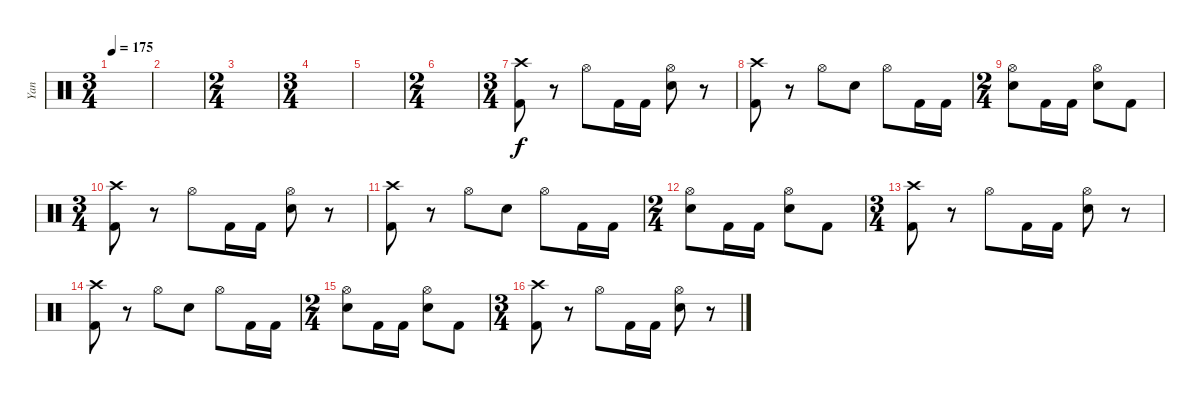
\track ("Yan" "Yan") {instrument percussion}
\staff {score}
\articulation defaults
\ts (3 4)
\tempo 175
\clef neutral
\ks c
|
|
\ts (2 4)
|
\ts (3 4)
|
|
\ts (2 4)
|
\ts (3 4)
("Kick (hit) 2" "Crash high (hit)").8 r.8 "Hi-Hat (open)".8 "Kick (hit) 2".16 "Kick (hit) 2".16 ("Electric Snare (hit)" "Hi-Hat (open)").8 r.8 |
("Kick (hit) 2" "Crash high (hit)").8 r.8 "Hi-Hat (open)".8 "Electric Snare (hit)".8 "Hi-Hat (open)".8 "Kick (hit) 2".16 "Kick (hit) 2".16 |
\ts (2 4)
("Electric Snare (hit)" "Hi-Hat (open)").8 "Kick (hit) 2".16 "Kick (hit) 2".16 ("Electric Snare (hit)" "Hi-Hat (open)").8 "Kick (hit) 2".8 |
\ts (3 4)
("Kick (hit) 2" "Crash high (hit)").8 r.8 "Hi-Hat (open)".8 "Kick (hit) 2".16 "Kick (hit) 2".16 ("Electric Snare (hit)" "Hi-Hat (open)").8 r.8 |
("Kick (hit) 2" "Crash high (hit)").8 r.8 "Hi-Hat (open)".8 "Electric Snare (hit)".8 "Hi-Hat (open)".8 "Kick (hit) 2".16 "Kick (hit) 2".16 |
\ts (2 4)
("Electric Snare (hit)" "Hi-Hat (open)").8 "Kick (hit) 2".16 "Kick (hit) 2".16 ("Electric Snare (hit)" "Hi-Hat (open)").8 "Kick (hit) 2".8 |
\ts (3 4)
("Kick (hit) 2" "Crash high (hit)").8 r.8 "Hi-Hat (open)".8 "Kick (hit) 2".16 "Kick (hit) 2".16 ("Electric Snare (hit)" "Hi-Hat (open)").8 r.8 |
("Kick (hit) 2" "Crash high (hit)").8 r.8 "Hi-Hat (open)".8 "Electric Snare (hit)".8 "Hi-Hat (open)".8 "Kick (hit) 2".16 "Kick (hit) 2".16 |
\ts (2 4)
("Electric Snare (hit)" "Hi-Hat (open)").8 "Kick (hit) 2".16 "Kick (hit) 2".16 ("Electric Snare (hit)" "Hi-Hat (open)").8 "Kick (hit) 2".8 |
\ts (3 4)
("Kick (hit) 2" "Crash high (hit)").8 r.8 "Hi-Hat (open)".8 "Kick (hit) 2".16 "Kick (hit) 2".16 ("Electric Snare (hit)" "Hi-Hat (open)").8 r.8
